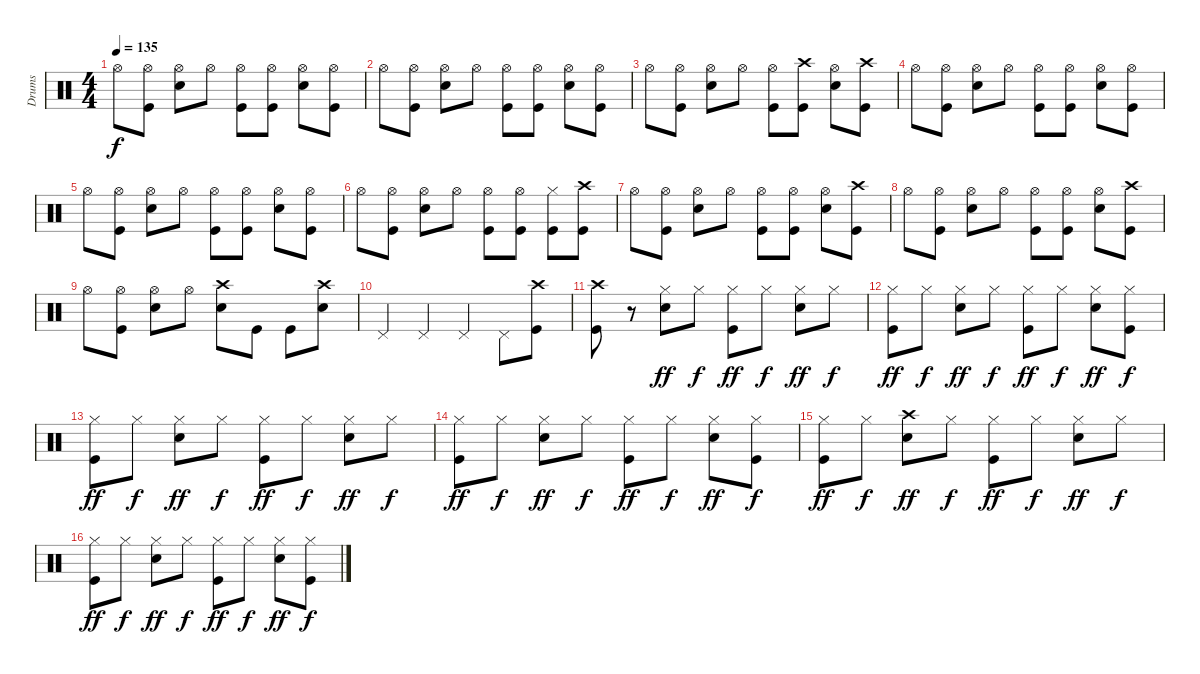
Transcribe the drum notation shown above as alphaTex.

\track ("Drums" "Drums") {instrument percussion}
\staff {score}
\articulation defaults
\ts (4 4)
\tempo 135
\clef neutral
\ks c "Hi-Hat (open)".8{dy f}
("Hi-Hat (open)" "Kick (hit)").8 ("Hi-Hat (open)" "Snare (hit) 2").8 "Hi-Hat (open)".8 ("Hi-Hat (open)" "Kick (hit)").8 ("Hi-Hat (open)" "Kick (hit)").8 ("Hi-Hat (open)" "Snare (hit) 2").8 ("Hi-Hat (open)" "Kick (hit)").8 |
"Hi-Hat (open)".8 ("Hi-Hat (open)" "Kick (hit)").8 ("Hi-Hat (open)" "Snare (hit) 2").8 "Hi-Hat (open)".8 ("Hi-Hat (open)" "Kick (hit)").8 ("Hi-Hat (open)" "Kick (hit)").8 ("Hi-Hat (open)" "Snare (hit) 2").8 ("Hi-Hat (open)" "Kick (hit)").8 |
"Hi-Hat (open)".8 ("Hi-Hat (open)" "Kick (hit)").8 ("Hi-Hat (open)" "Snare (hit) 2").8 "Hi-Hat (open)".8 ("Hi-Hat (open)" "Kick (hit)").8 ("Crash high (hit)" "Kick (hit)").8 ("Hi-Hat (open)" "Snare (hit) 2").8 ("Crash high (hit)" "Kick (hit)").8 |
"Hi-Hat (open)".8 ("Hi-Hat (open)" "Kick (hit)").8 ("Hi-Hat (open)" "Snare (hit) 2").8 "Hi-Hat (open)".8 ("Hi-Hat (open)" "Kick (hit)").8 ("Hi-Hat (open)" "Kick (hit)").8 ("Hi-Hat (open)" "Snare (hit) 2").8 ("Hi-Hat (open)" "Kick (hit)").8 |
"Hi-Hat (open)".8 ("Hi-Hat (open)" "Kick (hit)").8 ("Hi-Hat (open)" "Snare (hit) 2").8 "Hi-Hat (open)".8 ("Hi-Hat (open)" "Kick (hit)").8 ("Hi-Hat (open)" "Kick (hit)").8 ("Hi-Hat (open)" "Snare (hit) 2").8 ("Hi-Hat (open)" "Kick (hit)").8 |
"Hi-Hat (open)".8 ("Hi-Hat (open)" "Kick (hit)").8 ("Hi-Hat (open)" "Snare (hit) 2").8 "Hi-Hat (open)".8 ("Hi-Hat (open)" "Kick (hit)").8 ("Hi-Hat (open)" "Kick (hit)").8 ("Hi-Hat (closed)" "Kick (hit)").8 ("Crash high (hit)" "Kick (hit)").8 |
"Hi-Hat (open)".8 ("Hi-Hat (open)" "Kick (hit)").8 ("Hi-Hat (open)" "Snare (hit) 2").8 "Hi-Hat (open)".8 ("Hi-Hat (open)" "Kick (hit)").8 ("Hi-Hat (open)" "Kick (hit)").8 ("Hi-Hat (open)" "Snare (hit) 2").8 ("Crash high (hit)" "Kick (hit)").8 |
"Hi-Hat (open)".8 ("Hi-Hat (open)" "Kick (hit)").8 ("Hi-Hat (open)" "Snare (hit) 2").8 "Hi-Hat (open)".8 ("Hi-Hat (open)" "Kick (hit)").8 ("Hi-Hat (open)" "Kick (hit)").8 ("Hi-Hat (open)" "Snare (hit) 2").8 ("Crash high (hit)" "Kick (hit)").8 |
"Hi-Hat (open)".8 ("Hi-Hat (open)" "Kick (hit)").8 ("Hi-Hat (open)" "Snare (hit) 2").8 "Hi-Hat (open)".8 ("Crash high (hit)" "Snare (hit) 2").8 "Kick (hit)".8 "Kick (hit)".8 ("Crash high (hit)" "Snare (hit) 2").8 |
"Pedal Hi-Hat (hit)".4 "Pedal Hi-Hat (hit)".4 "Pedal Hi-Hat (hit)".4 "Pedal Hi-Hat (hit)".8 ("Crash high (hit)" "Kick (hit)").8 |
("Crash high (hit)" "Kick (hit)").8 r.8 ("Hi-Hat (closed)" "Snare (hit) 2").8{dy ff} "Hi-Hat (closed)".8{dy f} ("Hi-Hat (closed)" "Kick (hit)").8{dy ff} "Hi-Hat (closed)".8{dy f} ("Hi-Hat (closed)" "Snare (hit) 2").8{dy ff} "Hi-Hat (closed)".8{dy f} |
("Hi-Hat (closed)" "Kick (hit)").8{dy ff} "Hi-Hat (closed)".8{dy f} ("Hi-Hat (closed)" "Snare (hit) 2").8{dy ff} "Hi-Hat (closed)".8{dy f} ("Hi-Hat (closed)" "Kick (hit)").8{dy ff} "Hi-Hat (closed)".8{dy f} ("Hi-Hat (closed)" "Snare (hit) 2").8{dy ff} ("Hi-Hat (closed)" "Kick (hit)").8{dy f} |
("Hi-Hat (closed)" "Kick (hit)").8{dy ff} "Hi-Hat (closed)".8{dy f} ("Hi-Hat (closed)" "Snare (hit) 2").8{dy ff} "Hi-Hat (closed)".8{dy f} ("Hi-Hat (closed)" "Kick (hit)").8{dy ff} "Hi-Hat (closed)".8{dy f} ("Hi-Hat (closed)" "Snare (hit) 2").8{dy ff} "Hi-Hat (closed)".8{dy f} |
("Hi-Hat (closed)" "Kick (hit)").8{dy ff} "Hi-Hat (closed)".8{dy f} ("Hi-Hat (closed)" "Snare (hit) 2").8{dy ff} "Hi-Hat (closed)".8{dy f} ("Hi-Hat (closed)" "Kick (hit)").8{dy ff} "Hi-Hat (closed)".8{dy f} ("Hi-Hat (closed)" "Snare (hit) 2").8{dy ff} ("Hi-Hat (closed)" "Kick (hit)").8{dy f} |
("Hi-Hat (closed)" "Kick (hit)").8{dy ff} "Hi-Hat (closed)".8{dy f} ("Crash high (hit)" "Snare (hit) 2").8{dy ff} "Hi-Hat (closed)".8{dy f} ("Hi-Hat (closed)" "Kick (hit)").8{dy ff} "Hi-Hat (closed)".8{dy f} ("Hi-Hat (closed)" "Snare (hit) 2").8{dy ff} "Hi-Hat (closed)".8{dy f} |
("Hi-Hat (closed)" "Kick (hit)").8{dy ff} "Hi-Hat (closed)".8{dy f} ("Hi-Hat (closed)" "Snare (hit) 2").8{dy ff} "Hi-Hat (closed)".8{dy f} ("Hi-Hat (closed)" "Kick (hit)").8{dy ff} "Hi-Hat (closed)".8{dy f} ("Hi-Hat (closed)" "Snare (hit) 2").8{dy ff} ("Hi-Hat (closed)" "Kick (hit)").8{dy f}
